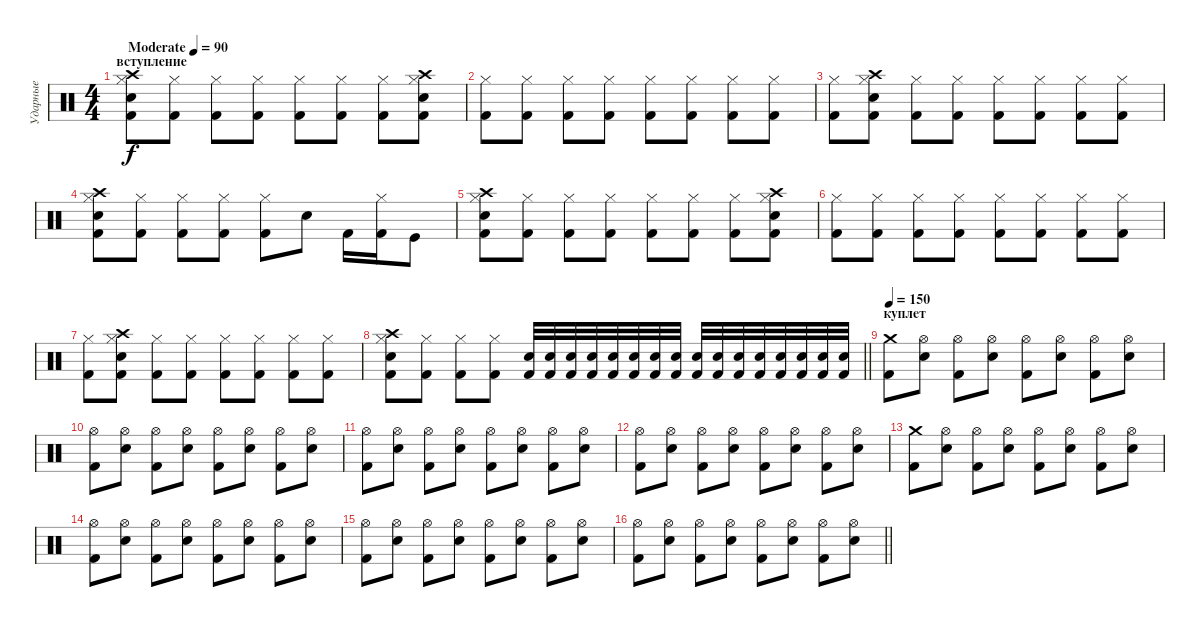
\track ("Ударные" "Ударные") {instrument percussion}
\staff {score}
\articulation defaults
\ts (4 4)
\section ("" "вступление")
\tempo (90 "Moderate")
\clef neutral
\ks c
("Hi-Hat (closed)" "Kick (hit) 2" "Crash high (hit)" "Electric Snare (hit)").8{dy f} ("Hi-Hat (closed)" "Kick (hit) 2").8 ("Hi-Hat (closed)" "Kick (hit) 2").8 ("Hi-Hat (closed)" "Kick (hit) 2").8 ("Hi-Hat (closed)" "Kick (hit) 2").8 ("Hi-Hat (closed)" "Kick (hit) 2").8 ("Hi-Hat (closed)" "Kick (hit) 2").8 ("Hi-Hat (closed)" "Kick (hit) 2" "Crash high (hit)" "Electric Snare (hit)").8 |
("Hi-Hat (closed)" "Kick (hit) 2").8 ("Hi-Hat (closed)" "Kick (hit) 2").8 ("Hi-Hat (closed)" "Kick (hit) 2").8 ("Hi-Hat (closed)" "Kick (hit) 2").8 ("Hi-Hat (closed)" "Kick (hit) 2").8 ("Hi-Hat (closed)" "Kick (hit) 2").8 ("Hi-Hat (closed)" "Kick (hit) 2").8 ("Hi-Hat (closed)" "Kick (hit) 2").8 |
("Hi-Hat (closed)" "Kick (hit) 2").8 ("Hi-Hat (closed)" "Kick (hit) 2" "Crash high (hit)" "Electric Snare (hit)").8 ("Hi-Hat (closed)" "Kick (hit) 2").8 ("Hi-Hat (closed)" "Kick (hit) 2").8 ("Hi-Hat (closed)" "Kick (hit) 2").8 ("Hi-Hat (closed)" "Kick (hit) 2").8 ("Hi-Hat (closed)" "Kick (hit) 2").8 ("Hi-Hat (closed)" "Kick (hit) 2").8 |
("Hi-Hat (closed)" "Kick (hit) 2" "Crash high (hit)" "Electric Snare (hit)").8 ("Hi-Hat (closed)" "Kick (hit) 2").8 ("Hi-Hat (closed)" "Kick (hit) 2").8 ("Hi-Hat (closed)" "Kick (hit) 2").8 ("Hi-Hat (closed)" "Kick (hit) 2").8 "Snare (hit) 2".8 "Kick (hit) 2".16 ("Hi-Hat (closed)" "Kick (hit) 2").16 "Kick (hit)".8 |
("Hi-Hat (closed)" "Kick (hit) 2" "Crash high (hit)" "Electric Snare (hit)").8 ("Hi-Hat (closed)" "Kick (hit) 2").8 ("Hi-Hat (closed)" "Kick (hit) 2").8 ("Hi-Hat (closed)" "Kick (hit) 2").8 ("Hi-Hat (closed)" "Kick (hit) 2").8 ("Hi-Hat (closed)" "Kick (hit) 2").8 ("Hi-Hat (closed)" "Kick (hit) 2").8 ("Hi-Hat (closed)" "Kick (hit) 2" "Crash high (hit)" "Electric Snare (hit)").8 |
("Hi-Hat (closed)" "Kick (hit) 2").8 ("Hi-Hat (closed)" "Kick (hit) 2").8 ("Hi-Hat (closed)" "Kick (hit) 2").8 ("Hi-Hat (closed)" "Kick (hit) 2").8 ("Hi-Hat (closed)" "Kick (hit) 2").8 ("Hi-Hat (closed)" "Kick (hit) 2").8 ("Hi-Hat (closed)" "Kick (hit) 2").8 ("Hi-Hat (closed)" "Kick (hit) 2").8 |
("Hi-Hat (closed)" "Kick (hit) 2").8 ("Hi-Hat (closed)" "Kick (hit) 2" "Crash high (hit)" "Electric Snare (hit)").8 ("Hi-Hat (closed)" "Kick (hit) 2").8 ("Hi-Hat (closed)" "Kick (hit) 2").8 ("Hi-Hat (closed)" "Kick (hit) 2").8 ("Hi-Hat (closed)" "Kick (hit) 2").8 ("Hi-Hat (closed)" "Kick (hit) 2").8 ("Hi-Hat (closed)" "Kick (hit) 2").8 |
\barLineRight lightlight
("Hi-Hat (closed)" "Kick (hit) 2" "Crash high (hit)" "Electric Snare (hit)").8 ("Hi-Hat (closed)" "Kick (hit) 2").8 ("Hi-Hat (closed)" "Kick (hit) 2").8 ("Hi-Hat (closed)" "Kick (hit) 2").8 ("Electric Snare (hit)" "Kick (hit) 2").32 ("Electric Snare (hit)" "Kick (hit) 2").32 ("Electric Snare (hit)" "Kick (hit) 2").32 ("Electric Snare (hit)" "Kick (hit) 2").32 ("Electric Snare (hit)" "Kick (hit) 2").32 ("Electric Snare (hit)" "Kick (hit) 2").32 ("Electric Snare (hit)" "Kick (hit) 2").32 ("Electric Snare (hit)" "Kick (hit) 2").32 ("Electric Snare (hit)" "Kick (hit) 2").32 ("Electric Snare (hit)" "Kick (hit) 2").32 ("Electric Snare (hit)" "Kick (hit) 2").32 ("Electric Snare (hit)" "Kick (hit) 2").32 ("Electric Snare (hit)" "Kick (hit) 2").32 ("Electric Snare (hit)" "Kick (hit) 2").32 ("Electric Snare (hit)" "Kick (hit) 2").32 ("Electric Snare (hit)" "Kick (hit) 2").32 |
\section ("" "куплет")
\tempo 140
\tempo 150
("Kick (hit) 2" "Crash medium (hit)").8 ("Electric Snare (hit)" "Hi-Hat (open)").8 ("Kick (hit) 2" "Hi-Hat (open)").8 ("Electric Snare (hit)" "Hi-Hat (open)").8 ("Kick (hit) 2" "Hi-Hat (open)").8 ("Electric Snare (hit)" "Hi-Hat (open)").8 ("Kick (hit) 2" "Hi-Hat (open)").8 ("Electric Snare (hit)" "Hi-Hat (open)").8 |
("Kick (hit) 2" "Hi-Hat (open)").8 ("Electric Snare (hit)" "Hi-Hat (open)").8 ("Kick (hit) 2" "Hi-Hat (open)").8 ("Electric Snare (hit)" "Hi-Hat (open)").8 ("Kick (hit) 2" "Hi-Hat (open)").8 ("Electric Snare (hit)" "Hi-Hat (open)").8 ("Kick (hit) 2" "Hi-Hat (open)").8 ("Electric Snare (hit)" "Hi-Hat (open)").8 |
("Kick (hit) 2" "Hi-Hat (open)").8 ("Electric Snare (hit)" "Hi-Hat (open)").8 ("Kick (hit) 2" "Hi-Hat (open)").8 ("Electric Snare (hit)" "Hi-Hat (open)").8 ("Kick (hit) 2" "Hi-Hat (open)").8 ("Electric Snare (hit)" "Hi-Hat (open)").8 ("Kick (hit) 2" "Hi-Hat (open)").8 ("Electric Snare (hit)" "Hi-Hat (open)").8 |
("Kick (hit) 2" "Hi-Hat (open)").8 ("Electric Snare (hit)" "Hi-Hat (open)").8 ("Kick (hit) 2" "Hi-Hat (open)").8 ("Electric Snare (hit)" "Hi-Hat (open)").8 ("Kick (hit) 2" "Hi-Hat (open)").8 ("Electric Snare (hit)" "Hi-Hat (open)").8 ("Kick (hit) 2" "Hi-Hat (open)").8 ("Electric Snare (hit)" "Hi-Hat (open)").8 |
("Kick (hit) 2" "Crash medium (hit)").8 ("Electric Snare (hit)" "Hi-Hat (open)").8 ("Kick (hit) 2" "Hi-Hat (open)").8 ("Electric Snare (hit)" "Hi-Hat (open)").8 ("Kick (hit) 2" "Hi-Hat (open)").8 ("Electric Snare (hit)" "Hi-Hat (open)").8 ("Kick (hit) 2" "Hi-Hat (open)").8 ("Electric Snare (hit)" "Hi-Hat (open)").8 |
("Kick (hit) 2" "Hi-Hat (open)").8 ("Electric Snare (hit)" "Hi-Hat (open)").8 ("Kick (hit) 2" "Hi-Hat (open)").8 ("Electric Snare (hit)" "Hi-Hat (open)").8 ("Kick (hit) 2" "Hi-Hat (open)").8 ("Electric Snare (hit)" "Hi-Hat (open)").8 ("Kick (hit) 2" "Hi-Hat (open)").8 ("Electric Snare (hit)" "Hi-Hat (open)").8 |
("Kick (hit) 2" "Hi-Hat (open)").8 ("Electric Snare (hit)" "Hi-Hat (open)").8 ("Kick (hit) 2" "Hi-Hat (open)").8 ("Electric Snare (hit)" "Hi-Hat (open)").8 ("Kick (hit) 2" "Hi-Hat (open)").8 ("Electric Snare (hit)" "Hi-Hat (open)").8 ("Kick (hit) 2" "Hi-Hat (open)").8 ("Electric Snare (hit)" "Hi-Hat (open)").8 |
\barLineRight lightlight
("Kick (hit) 2" "Hi-Hat (open)").8 ("Electric Snare (hit)" "Hi-Hat (open)").8 ("Kick (hit) 2" "Hi-Hat (open)").8 ("Electric Snare (hit)" "Hi-Hat (open)").8 ("Kick (hit) 2" "Hi-Hat (open)").8 ("Electric Snare (hit)" "Hi-Hat (open)").8 ("Kick (hit) 2" "Hi-Hat (open)").8 ("Electric Snare (hit)" "Hi-Hat (open)").8
